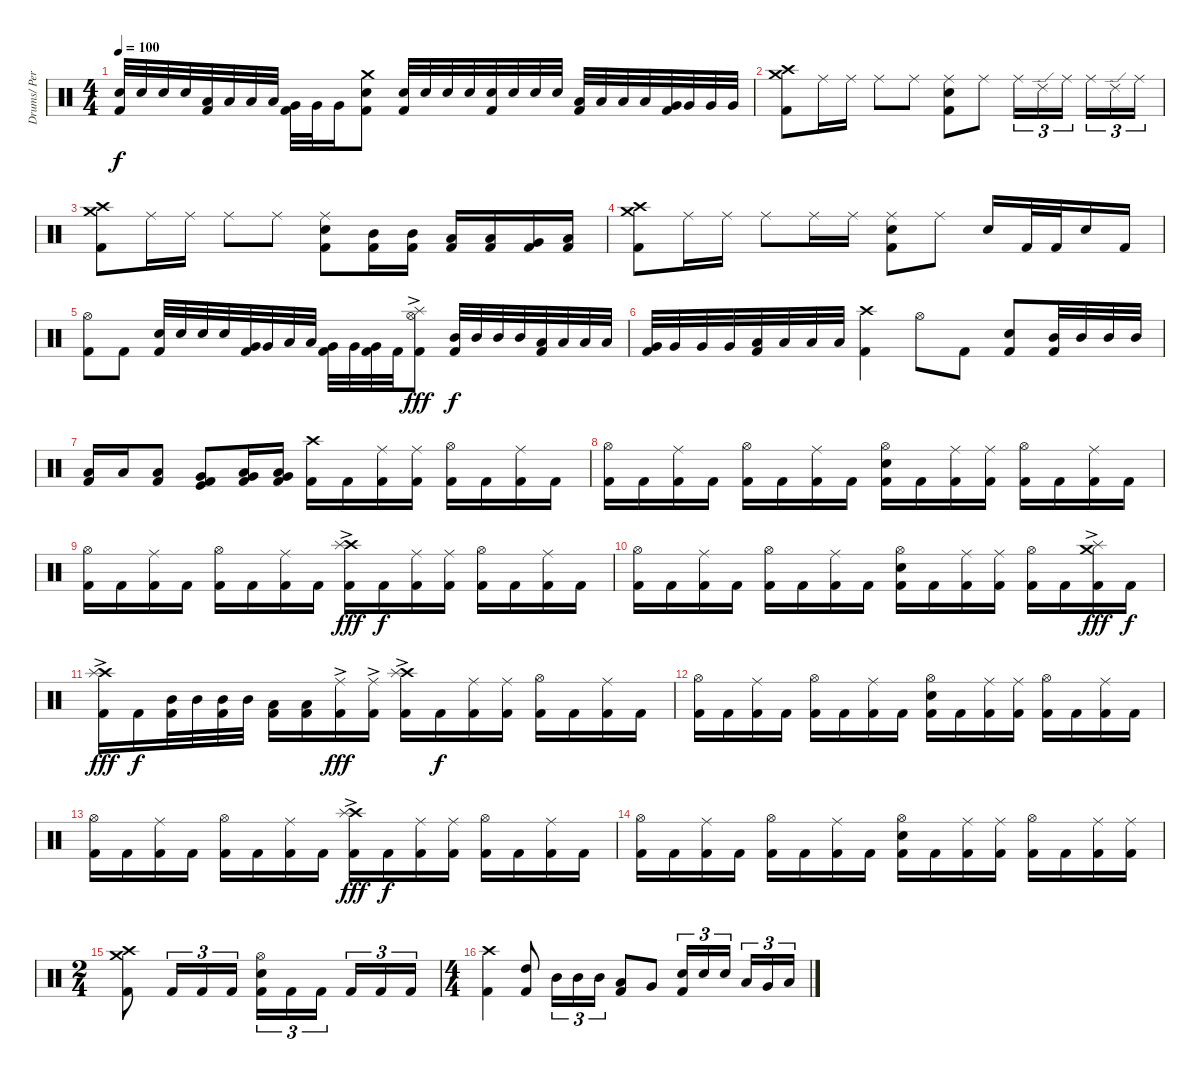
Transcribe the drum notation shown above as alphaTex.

\track ("Drums/ Percussion - Tony Laureano" "Drums/ Per") {instrument percussion}
\staff {score}
\articulation defaults
\ts (4 4)
\tempo 100
\clef neutral
\ks c
("Electric Snare (hit)" "Kick (hit) 2").32{dy f} "Electric Snare (hit)".32 "Electric Snare (hit)".32 "Electric Snare (hit)".32 ("Low Tom (hit)" "Kick (hit) 2").32 "Low Tom (hit)".32 "Low Tom (hit)".32 "Low Tom (hit)".32 ("Very Low Tom (hit)" "Kick (hit) 2").32 "Very Low Tom (hit)".32 "Very Low Tom (hit)".16 ("Crash medium (hit)" "Electric Snare (hit)" "Kick (hit) 2").8 ("Electric Snare (hit)" "Kick (hit) 2").32 "Electric Snare (hit)".32 "Electric Snare (hit)".32 "Electric Snare (hit)".32 ("Electric Snare (hit)" "Kick (hit) 2").32 "Electric Snare (hit)".32 "Electric Snare (hit)".32 "Electric Snare (hit)".32 ("Low Tom (hit)" "Kick (hit) 2").32 "Low Tom (hit)".32 "Low Tom (hit)".32 "Low Tom (hit)".32 ("Very Low Tom (hit)" "Kick (hit) 2").32 "Very Low Tom (hit)".32 "Very Low Tom (hit)".32 "Very Low Tom (hit)".32 |
("Crash medium (hit)" "Crash high (hit)" "Kick (hit) 2").8 "Ride (middle)".16 "Ride (middle)".16 "Ride (middle)".8 "Ride (middle)".8 ("Ride (middle)" "Electric Snare (hit)" "Kick (hit) 2").8 "Ride (middle)".8 "Ride (middle)".16{tu (3 2)} "Ride (edge) 2".16{tu (3 2)} "Ride (middle)".16{tu (3 2)} "Ride (middle)".16{tu (3 2)} "Ride (edge) 2".16{tu (3 2)} "Ride (middle)".16{tu (3 2)} |
("Crash medium (hit)" "Crash high (hit)" "Kick (hit) 2").8 "Ride (middle)".16 "Ride (middle)".16 "Ride (middle)".8 "Ride (middle)".8 ("Ride (middle)" "Electric Snare (hit)" "Kick (hit) 2").8 ("Mid Tom (hit)" "Kick (hit) 2").16 ("Mid Tom (hit)" "Kick (hit) 2").16 ("Low Tom (hit)" "Kick (hit) 2").16 ("Low Tom (hit)" "Kick (hit) 2").16 ("Very Low Tom (hit)" "Kick (hit) 2").16 ("Low Floor Tom (hit)" "Kick (hit) 2").16 |
("Crash medium (hit)" "Crash high (hit)" "Kick (hit) 2").8 "Ride (middle)".16 "Ride (middle)".16 "Ride (middle)".8 "Ride (middle)".16 "Ride (middle)".16 ("Ride (middle)" "Electric Snare (hit)" "Kick (hit) 2").8 "Ride (middle)".8 "Electric Snare (hit)".16 "Kick (hit) 2".32 "Kick (hit) 2".32 "Electric Snare (hit)".16 "Kick (hit) 2".16 |
("Hi-Hat (open)" "Kick (hit) 2").8 "Kick (hit) 2".8 ("Electric Snare (hit)" "Kick (hit) 2").32 "Electric Snare (hit)".32 "Electric Snare (hit)".32 "Electric Snare (hit)".32 ("Very Low Tom (hit)" "Kick (hit) 2").32 "Very Low Tom (hit)".32 "Low Tom (hit)".32 "Low Tom (hit)".32 ("Very Low Tom (hit)" "Kick (hit) 2").32 "Very Low Tom (hit)".32 ("Very Low Tom (hit)" "Kick (hit) 2").32 "Kick (hit) 2".32 ("Splash (hit)" "Hi-Hat (open)"{ac} "Kick (hit) 2").8{dy fff} ("Mid Tom (hit)" "Kick (hit) 2").32{dy f} "Mid Tom (hit)".32 "Mid Tom (hit)".32 "Mid Tom (hit)".32 ("Low Tom (hit)" "Kick (hit) 2").32 "Low Tom (hit)".32 "Low Tom (hit)".32 "Low Tom (hit)".32 |
("Very Low Tom (hit)" "Kick (hit) 2").32 "Very Low Tom (hit)".32 "Very Low Tom (hit)".32 "Very Low Tom (hit)".32 ("Low Floor Tom (hit)" "Kick (hit) 2").32 "Low Floor Tom (hit)".32 "Low Floor Tom (hit)".32 "Low Floor Tom (hit)".32 ("Crash high (hit)" "Kick (hit) 2").4 "Hi-Hat (open)".8 "Kick (hit) 2".8 ("Electric Snare (hit)" "Kick (hit) 2").8 ("Mid Tom (hit)" "Kick (hit) 2").32 "Mid Tom (hit)".32 "Mid Tom (hit)".32 "Mid Tom (hit)".32 |
("Low Tom (hit)" "Kick (hit) 2").16 "Low Tom (hit)".16 ("Low Tom (hit)" "Kick (hit) 2").8 ("Very Low Tom (hit)" "Kick (hit)" "Kick (hit) 2").8 ("Low Floor Tom (hit)" "Very Low Tom (hit)" "Kick (hit) 2").16 ("Low Floor Tom (hit)" "Very Low Tom (hit)" "Kick (hit) 2").16 ("Crash high (hit)" "Kick (hit) 2").16 "Kick (hit) 2".16 ("Ride (middle)" "Kick (hit) 2").16 ("Ride (middle)" "Kick (hit) 2").16 ("Hi-Hat (open)" "Kick (hit) 2").16 "Kick (hit) 2".16 ("Ride (middle)" "Kick (hit) 2").16 "Kick (hit) 2".16 |
("Hi-Hat (open)" "Kick (hit) 2").16 "Kick (hit) 2".16 ("Ride (middle)" "Kick (hit) 2").16 "Kick (hit) 2".16 ("Hi-Hat (open)" "Kick (hit) 2").16 "Kick (hit) 2".16 ("Ride (middle)" "Kick (hit) 2").16 "Kick (hit) 2".16 ("Hi-Hat (open)" "Electric Snare (hit)" "Kick (hit) 2").16 "Kick (hit) 2".16 ("Ride (middle)" "Kick (hit) 2").16 ("Ride (middle)" "Kick (hit) 2").16 ("Hi-Hat (open)" "Kick (hit) 2").16 "Kick (hit) 2".16 ("Ride (middle)" "Kick (hit) 2").16 "Kick (hit) 2".16 |
("Hi-Hat (open)" "Kick (hit) 2").16 "Kick (hit) 2".16 ("Ride (middle)" "Kick (hit) 2").16 "Kick (hit) 2".16 ("Hi-Hat (open)" "Kick (hit) 2").16 "Kick (hit) 2".16 ("Ride (middle)" "Kick (hit) 2").16 "Kick (hit) 2".16 ("Crash high (hit)" "Splash (hit)"{ac} "Kick (hit) 2").16{dy fff} "Kick (hit) 2".16{dy f} ("Ride (middle)" "Kick (hit) 2").16 ("Ride (middle)" "Kick (hit) 2").16 ("Hi-Hat (open)" "Kick (hit) 2").16 "Kick (hit) 2".16 ("Ride (middle)" "Kick (hit) 2").16 "Kick (hit) 2".16 |
("Hi-Hat (open)" "Kick (hit) 2").16 "Kick (hit) 2".16 ("Ride (middle)" "Kick (hit) 2").16 "Kick (hit) 2".16 ("Hi-Hat (open)" "Kick (hit) 2").16 "Kick (hit) 2".16 ("Ride (middle)" "Kick (hit) 2").16 "Kick (hit) 2".16 ("Hi-Hat (open)" "Electric Snare (hit)" "Kick (hit) 2").16 "Kick (hit) 2".16 ("Ride (middle)" "Kick (hit) 2").16 ("Ride (middle)" "Kick (hit) 2").16 ("Hi-Hat (open)" "Kick (hit) 2").16 "Kick (hit) 2".16 ("Crash medium (hit)" "Splash (hit)"{ac} "Kick (hit) 2").16{dy fff} "Kick (hit) 2".16{dy f} |
("Crash high (hit)" "Splash (hit)"{ac} "Kick (hit) 2").16{dy fff} "Kick (hit) 2".16{dy f} ("Mid Tom (hit)" "Kick (hit) 2").32 "Mid Tom (hit)".32 ("Mid Tom (hit)" "Kick (hit) 2").32 "Mid Tom (hit)".32 ("Low Tom (hit)" "Kick (hit) 2").16 ("Low Tom (hit)" "Kick (hit) 2").16 ("Ride (middle)"{ac} "Kick (hit) 2").16{dy fff} ("Ride (middle)"{ac} "Kick (hit) 2").16 ("Crash high (hit)" "Splash (hit)"{ac} "Kick (hit) 2").16 "Kick (hit) 2".16{dy f} ("Ride (middle)" "Kick (hit) 2").16 ("Ride (middle)" "Kick (hit) 2").16 ("Hi-Hat (open)" "Kick (hit) 2").16 "Kick (hit) 2".16 ("Ride (middle)" "Kick (hit) 2").16 "Kick (hit) 2".16 |
("Hi-Hat (open)" "Kick (hit) 2").16 "Kick (hit) 2".16 ("Ride (middle)" "Kick (hit) 2").16 "Kick (hit) 2".16 ("Hi-Hat (open)" "Kick (hit) 2").16 "Kick (hit) 2".16 ("Ride (middle)" "Kick (hit) 2").16 "Kick (hit) 2".16 ("Hi-Hat (open)" "Electric Snare (hit)" "Kick (hit) 2").16 "Kick (hit) 2".16 ("Ride (middle)" "Kick (hit) 2").16 ("Ride (middle)" "Kick (hit) 2").16 ("Hi-Hat (open)" "Kick (hit) 2").16 "Kick (hit) 2".16 ("Ride (middle)" "Kick (hit) 2").16 "Kick (hit) 2".16 |
("Hi-Hat (open)" "Kick (hit) 2").16 "Kick (hit) 2".16 ("Ride (middle)" "Kick (hit) 2").16 "Kick (hit) 2".16 ("Hi-Hat (open)" "Kick (hit) 2").16 "Kick (hit) 2".16 ("Ride (middle)" "Kick (hit) 2").16 "Kick (hit) 2".16 ("Crash high (hit)" "Splash (hit)"{ac} "Kick (hit) 2").16{dy fff} "Kick (hit) 2".16{dy f} ("Ride (middle)" "Kick (hit) 2").16 ("Ride (middle)" "Kick (hit) 2").16 ("Hi-Hat (open)" "Kick (hit) 2").16 "Kick (hit) 2".16 ("Ride (middle)" "Kick (hit) 2").16 "Kick (hit) 2".16 |
("Hi-Hat (open)" "Kick (hit) 2").16 "Kick (hit) 2".16 ("Ride (middle)" "Kick (hit) 2").16 "Kick (hit) 2".16 ("Hi-Hat (open)" "Kick (hit) 2").16 "Kick (hit) 2".16 ("Ride (middle)" "Kick (hit) 2").16 "Kick (hit) 2".16 ("Hi-Hat (open)" "Electric Snare (hit)" "Kick (hit) 2").16 "Kick (hit) 2".16 ("Ride (middle)" "Kick (hit) 2").16 ("Ride (middle)" "Kick (hit) 2").16 ("Hi-Hat (open)" "Kick (hit) 2").16 "Kick (hit) 2".16 ("Ride (middle)" "Kick (hit) 2").16 ("Ride (middle)" "Kick (hit) 2").16 |
\ts (2 4)
("Crash high (hit)" "Crash medium (hit)" "Kick (hit) 2").8 "Kick (hit) 2".16{tu (3 2)} "Kick (hit) 2".16{tu (3 2)} "Kick (hit) 2".16{tu (3 2)} ("Hi-Hat (open)" "Electric Snare (hit)" "Kick (hit) 2").16{tu (3 2)} "Kick (hit) 2".16{tu (3 2)} "Kick (hit) 2".16{tu (3 2)} "Kick (hit) 2".16{tu (3 2)} "Kick (hit) 2".16{tu (3 2)} "Kick (hit) 2".16{tu (3 2)} |
\ts (4 4)
("Crash high (hit)" "Kick (hit) 2").4 ("High Tom (hit)" "Kick (hit) 2").8 "Mid Tom (hit)".16{tu (3 2)} "Mid Tom (hit)".16{tu (3 2)} "Mid Tom (hit)".16{tu (3 2)} ("Low Tom (hit)" "Kick (hit) 2").8 "Very Low Tom (hit)".8 ("Electric Snare (hit)" "Kick (hit) 2").16{tu (3 2)} "Electric Snare (hit)".16{tu (3 2)} "Electric Snare (hit)".16{tu (3 2)} "Low Tom (hit)".16{tu (3 2)} "Very Low Tom (hit)".16{tu (3 2)} "Low Floor Tom (hit)".16{tu (3 2)}
